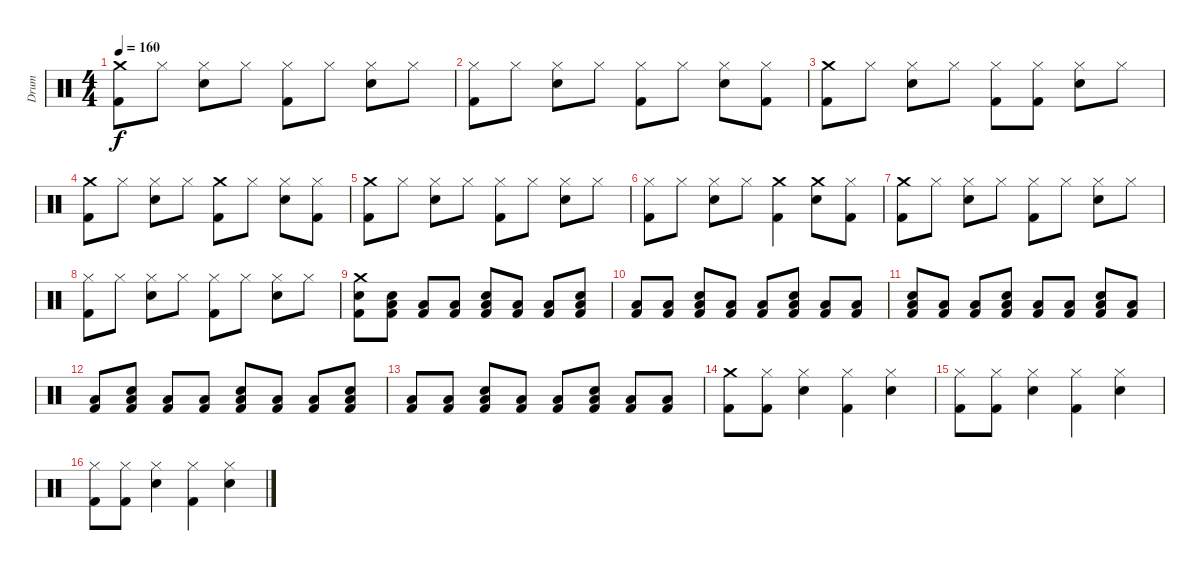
\track ("Drum" "Drum") {instrument percussion}
\staff {score}
\articulation defaults
\ts (4 4)
\tempo 160
\clef neutral
\ks c
("Crash medium (hit)" "Kick (hit) 2").8{dy f} "Hi-Hat (closed)".8 ("Hi-Hat (closed)" "Snare (hit) 2").8 "Hi-Hat (closed)".8 ("Hi-Hat (closed)" "Kick (hit) 2").8 "Hi-Hat (closed)".8 ("Hi-Hat (closed)" "Snare (hit) 2").8 "Hi-Hat (closed)".8 |
("Hi-Hat (closed)" "Kick (hit) 2").8 "Hi-Hat (closed)".8 ("Hi-Hat (closed)" "Snare (hit) 2").8 "Hi-Hat (closed)".8 ("Hi-Hat (closed)" "Kick (hit) 2").8 "Hi-Hat (closed)".8 ("Hi-Hat (closed)" "Snare (hit) 2").8 ("Hi-Hat (closed)" "Kick (hit) 2").8 |
("Crash medium (hit)" "Kick (hit) 2").8 "Hi-Hat (closed)".8 ("Hi-Hat (closed)" "Snare (hit) 2").8 "Hi-Hat (closed)".8 ("Hi-Hat (closed)" "Kick (hit) 2").8 ("Hi-Hat (closed)" "Kick (hit) 2").8 ("Hi-Hat (closed)" "Snare (hit) 2").8 "Hi-Hat (closed)".8 |
("Crash medium (hit)" "Kick (hit) 2").8 "Hi-Hat (closed)".8 ("Hi-Hat (closed)" "Snare (hit) 2").8 "Hi-Hat (closed)".8 ("Crash medium (hit)" "Kick (hit) 2").8 "Hi-Hat (closed)".8 ("Hi-Hat (closed)" "Snare (hit) 2").8 ("Hi-Hat (closed)" "Kick (hit) 2").8 |
("Crash medium (hit)" "Kick (hit) 2").8 "Hi-Hat (closed)".8 ("Hi-Hat (closed)" "Snare (hit) 2").8 "Hi-Hat (closed)".8 ("Hi-Hat (closed)" "Kick (hit) 2").8 "Hi-Hat (closed)".8 ("Hi-Hat (closed)" "Snare (hit) 2").8 "Hi-Hat (closed)".8 |
("Hi-Hat (closed)" "Kick (hit) 2").8 "Hi-Hat (closed)".8 ("Hi-Hat (closed)" "Snare (hit) 2").8 "Hi-Hat (closed)".8 ("Crash medium (hit)" "Kick (hit) 2").4 ("Crash medium (hit)" "Snare (hit) 2").8 ("Hi-Hat (closed)" "Kick (hit) 2").8 |
("Crash medium (hit)" "Kick (hit) 2").8 "Hi-Hat (closed)".8 ("Hi-Hat (closed)" "Snare (hit) 2").8 "Hi-Hat (closed)".8 ("Hi-Hat (closed)" "Kick (hit) 2").8 "Hi-Hat (closed)".8 ("Hi-Hat (closed)" "Snare (hit) 2").8 "Hi-Hat (closed)".8 |
("Hi-Hat (closed)" "Kick (hit) 2").8 "Hi-Hat (closed)".8 ("Hi-Hat (closed)" "Snare (hit) 2").8 "Hi-Hat (closed)".8 ("Hi-Hat (closed)" "Kick (hit) 2").8 "Hi-Hat (closed)".8 ("Hi-Hat (closed)" "Snare (hit) 2").8 "Hi-Hat (closed)".8 |
("Crash medium (hit)" "Snare (hit) 2" "Kick (hit) 2").8 ("Snare (hit) 2" "Low Floor Tom (hit)" "Kick (hit) 2").8 ("Low Floor Tom (hit)" "Kick (hit) 2").8 ("Low Floor Tom (hit)" "Kick (hit) 2").8 ("Snare (hit) 2" "Low Floor Tom (hit)" "Kick (hit) 2").8 ("Low Floor Tom (hit)" "Kick (hit) 2").8 ("Low Floor Tom (hit)" "Kick (hit) 2").8 ("Snare (hit) 2" "Low Floor Tom (hit)" "Kick (hit) 2").8 |
("Low Floor Tom (hit)" "Kick (hit) 2").8 ("Low Floor Tom (hit)" "Kick (hit) 2").8 ("Snare (hit) 2" "Low Floor Tom (hit)" "Kick (hit) 2").8 ("Low Floor Tom (hit)" "Kick (hit) 2").8 ("Low Floor Tom (hit)" "Kick (hit) 2").8 ("Snare (hit) 2" "Low Floor Tom (hit)" "Kick (hit) 2").8 ("Low Floor Tom (hit)" "Kick (hit) 2").8 ("Low Floor Tom (hit)" "Kick (hit) 2").8 |
("Snare (hit) 2" "Low Floor Tom (hit)" "Kick (hit) 2").8 ("Low Floor Tom (hit)" "Kick (hit) 2").8 ("Low Floor Tom (hit)" "Kick (hit) 2").8 ("Snare (hit) 2" "Low Floor Tom (hit)" "Kick (hit) 2").8 ("Low Floor Tom (hit)" "Kick (hit) 2").8 ("Low Floor Tom (hit)" "Kick (hit) 2").8 ("Snare (hit) 2" "Low Floor Tom (hit)" "Kick (hit) 2").8 ("Low Floor Tom (hit)" "Kick (hit) 2").8 |
("Low Floor Tom (hit)" "Kick (hit) 2").8 ("Snare (hit) 2" "Low Floor Tom (hit)" "Kick (hit) 2").8 ("Low Floor Tom (hit)" "Kick (hit) 2").8 ("Low Floor Tom (hit)" "Kick (hit) 2").8 ("Snare (hit) 2" "Low Floor Tom (hit)" "Kick (hit) 2").8 ("Low Floor Tom (hit)" "Kick (hit) 2").8 ("Low Floor Tom (hit)" "Kick (hit) 2").8 ("Snare (hit) 2" "Low Floor Tom (hit)" "Kick (hit) 2").8 |
("Low Floor Tom (hit)" "Kick (hit) 2").8 ("Low Floor Tom (hit)" "Kick (hit) 2").8 ("Snare (hit) 2" "Low Floor Tom (hit)" "Kick (hit) 2").8 ("Low Floor Tom (hit)" "Kick (hit) 2").8 ("Low Floor Tom (hit)" "Kick (hit) 2").8 ("Snare (hit) 2" "Low Floor Tom (hit)" "Kick (hit) 2").8 ("Low Floor Tom (hit)" "Kick (hit) 2").8 ("Low Floor Tom (hit)" "Kick (hit) 2").8 |
("Crash medium (hit)" "Kick (hit) 2").8 ("Hi-Hat (closed)" "Kick (hit) 2").8 ("Hi-Hat (closed)" "Snare (hit) 2").4 ("Hi-Hat (closed)" "Kick (hit) 2").4 ("Hi-Hat (closed)" "Snare (hit) 2").4 |
("Hi-Hat (closed)" "Kick (hit) 2").8 ("Hi-Hat (closed)" "Kick (hit) 2").8 ("Hi-Hat (closed)" "Snare (hit) 2").4 ("Hi-Hat (closed)" "Kick (hit) 2").4 ("Hi-Hat (closed)" "Snare (hit) 2").4 |
("Hi-Hat (closed)" "Kick (hit) 2").8 ("Hi-Hat (closed)" "Kick (hit) 2").8 ("Hi-Hat (closed)" "Snare (hit) 2").4 ("Hi-Hat (closed)" "Kick (hit) 2").4 ("Hi-Hat (closed)" "Snare (hit) 2").4
